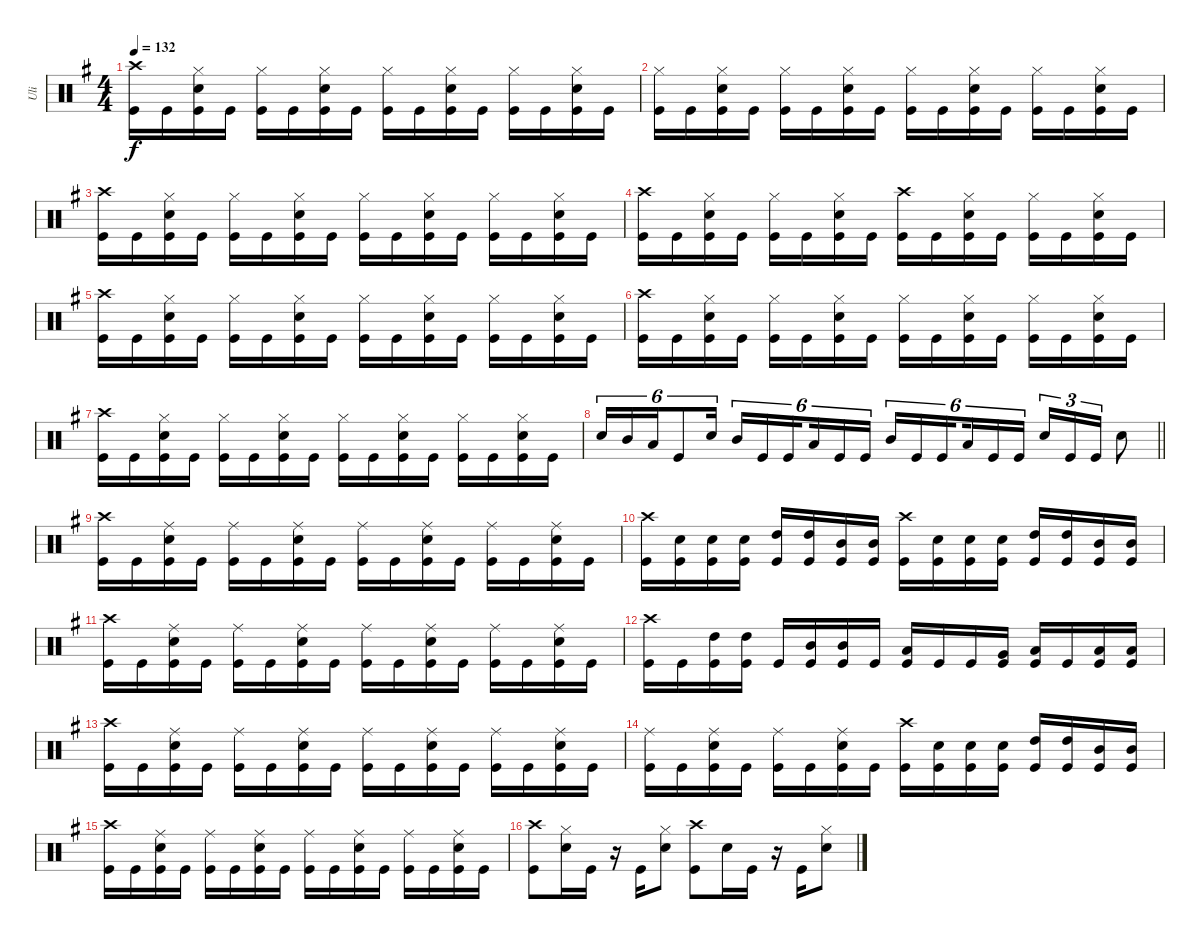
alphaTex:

\track ("Uli" "Uli") {instrument percussion}
\staff {score}
\articulation defaults
\ts (4 4)
\tempo 132
\clef neutral
\ks eminor
("Crash high (hit)" "Kick (hit)").16{dy f} "Kick (hit)".16 ("Hi-Hat (closed)" "Snare (hit) 2" "Kick (hit)").16 "Kick (hit)".16 ("Hi-Hat (closed)" "Kick (hit)").16 "Kick (hit)".16 ("Hi-Hat (closed)" "Snare (hit) 2" "Kick (hit)").16 "Kick (hit)".16 ("Hi-Hat (closed)" "Kick (hit)").16 "Kick (hit)".16 ("Hi-Hat (closed)" "Snare (hit) 2" "Kick (hit)").16 "Kick (hit)".16 ("Hi-Hat (closed)" "Kick (hit)").16 "Kick (hit)".16 ("Hi-Hat (closed)" "Snare (hit) 2" "Kick (hit)").16 "Kick (hit)".16 |
("Hi-Hat (closed)" "Kick (hit)").16 "Kick (hit)".16 ("Hi-Hat (closed)" "Snare (hit) 2" "Kick (hit)").16 "Kick (hit)".16 ("Hi-Hat (closed)" "Kick (hit)").16 "Kick (hit)".16 ("Hi-Hat (closed)" "Snare (hit) 2" "Kick (hit)").16 "Kick (hit)".16 ("Hi-Hat (closed)" "Kick (hit)").16 "Kick (hit)".16 ("Hi-Hat (closed)" "Snare (hit) 2" "Kick (hit)").16 "Kick (hit)".16 ("Hi-Hat (closed)" "Kick (hit)").16 "Kick (hit)".16 ("Hi-Hat (closed)" "Snare (hit) 2" "Kick (hit)").16 "Kick (hit)".16 |
("Crash high (hit)" "Kick (hit)").16 "Kick (hit)".16 ("Hi-Hat (closed)" "Snare (hit) 2" "Kick (hit)").16 "Kick (hit)".16 ("Hi-Hat (closed)" "Kick (hit)").16 "Kick (hit)".16 ("Hi-Hat (closed)" "Snare (hit) 2" "Kick (hit)").16 "Kick (hit)".16 ("Hi-Hat (closed)" "Kick (hit)").16 "Kick (hit)".16 ("Hi-Hat (closed)" "Snare (hit) 2" "Kick (hit)").16 "Kick (hit)".16 ("Hi-Hat (closed)" "Kick (hit)").16 "Kick (hit)".16 ("Hi-Hat (closed)" "Snare (hit) 2" "Kick (hit)").16 "Kick (hit)".16 |
("Crash high (hit)" "Kick (hit)").16 "Kick (hit)".16 ("Hi-Hat (closed)" "Snare (hit) 2" "Kick (hit)").16 "Kick (hit)".16 ("Hi-Hat (closed)" "Kick (hit)").16 "Kick (hit)".16 ("Hi-Hat (closed)" "Snare (hit) 2" "Kick (hit)").16 "Kick (hit)".16 ("Crash high (hit)" "Kick (hit)").16 "Kick (hit)".16 ("Hi-Hat (closed)" "Snare (hit) 2" "Kick (hit)").16 "Kick (hit)".16 ("Hi-Hat (closed)" "Kick (hit)").16 "Kick (hit)".16 ("Hi-Hat (closed)" "Snare (hit) 2" "Kick (hit)").16 "Kick (hit)".16 |
("Crash high (hit)" "Kick (hit)").16 "Kick (hit)".16 ("Hi-Hat (closed)" "Snare (hit) 2" "Kick (hit)").16 "Kick (hit)".16 ("Hi-Hat (closed)" "Kick (hit)").16 "Kick (hit)".16 ("Hi-Hat (closed)" "Snare (hit) 2" "Kick (hit)").16 "Kick (hit)".16 ("Hi-Hat (closed)" "Kick (hit)").16 "Kick (hit)".16 ("Hi-Hat (closed)" "Snare (hit) 2" "Kick (hit)").16 "Kick (hit)".16 ("Hi-Hat (closed)" "Kick (hit)").16 "Kick (hit)".16 ("Hi-Hat (closed)" "Snare (hit) 2" "Kick (hit)").16 "Kick (hit)".16 |
("Crash high (hit)" "Kick (hit)").16 "Kick (hit)".16 ("Hi-Hat (closed)" "Snare (hit) 2" "Kick (hit)").16 "Kick (hit)".16 ("Hi-Hat (closed)" "Kick (hit)").16 "Kick (hit)".16 ("Hi-Hat (closed)" "Snare (hit) 2" "Kick (hit)").16 "Kick (hit)".16 ("Hi-Hat (closed)" "Kick (hit)").16 "Kick (hit)".16 ("Hi-Hat (closed)" "Snare (hit) 2" "Kick (hit)").16 "Kick (hit)".16 ("Hi-Hat (closed)" "Kick (hit)").16 "Kick (hit)".16 ("Hi-Hat (closed)" "Snare (hit) 2" "Kick (hit)").16 "Kick (hit)".16 |
("Crash high (hit)" "Kick (hit)").16 "Kick (hit)".16 ("Hi-Hat (closed)" "Snare (hit) 2" "Kick (hit)").16 "Kick (hit)".16 ("Hi-Hat (closed)" "Kick (hit)").16 "Kick (hit)".16 ("Hi-Hat (closed)" "Snare (hit) 2" "Kick (hit)").16 "Kick (hit)".16 ("Hi-Hat (closed)" "Kick (hit)").16 "Kick (hit)".16 ("Hi-Hat (closed)" "Snare (hit) 2" "Kick (hit)").16 "Kick (hit)".16 ("Hi-Hat (closed)" "Kick (hit)").16 "Kick (hit)".16 ("Hi-Hat (closed)" "Snare (hit) 2" "Kick (hit)").16 "Kick (hit)".16 |
\barLineRight lightlight "Snare (hit) 2".16{tu (6 4)} "Mid Tom (hit)".16{tu (6 4)} "Low Tom (hit)".16{tu (6 4)} "Kick (hit)".8{tu (6 4)} "Snare (hit) 2".16{tu (6 4)} "Mid Tom (hit)".16{tu (6 4)} "Kick (hit)".16{tu (6 4)} "Kick (hit)".16{tu (6 4) beam splitsecondary} "Low Tom (hit)".16{tu (6 4)} "Kick (hit)".16{tu (6 4)} "Kick (hit)".16{tu (6 4)} "Mid Tom (hit)".16{tu (6 4)} "Kick (hit)".16{tu (6 4)} "Kick (hit)".16{tu (6 4) beam splitsecondary} "Low Tom (hit)".16{tu (6 4)} "Kick (hit)".16{tu (6 4)} "Kick (hit)".16{tu (6 4)} "Snare (hit) 2".16{tu (3 2)} "Kick (hit)".16{tu (3 2)} "Kick (hit)".16{tu (3 2)} "Snare (hit) 2".8
|
("Crash high (hit)" "Kick (hit)").16 "Kick (hit)".16 ("Ride (middle)" "Snare (hit) 2" "Kick (hit)").16 "Kick (hit)".16 ("Ride (middle)" "Kick (hit)").16 "Kick (hit)".16 ("Ride (middle)" "Snare (hit) 2" "Kick (hit)").16 "Kick (hit)".16 ("Ride (middle)" "Kick (hit)").16 "Kick (hit)".16 ("Ride (middle)" "Snare (hit) 2" "Kick (hit)").16 "Kick (hit)".16 ("Ride (middle)" "Kick (hit)").16 "Kick (hit)".16 ("Ride (middle)" "Snare (hit) 2" "Kick (hit)").16 "Kick (hit)".16 |
("Crash high (hit)" "Kick (hit)").16 ("Snare (hit) 2" "Kick (hit)").16 ("Snare (hit) 2" "Kick (hit)").16 ("Snare (hit) 2" "Kick (hit)").16 ("High Tom (hit)" "Kick (hit)").16 ("High Tom (hit)" "Kick (hit)").16 ("Mid Tom (hit)" "Kick (hit)").16 ("Mid Tom (hit)" "Kick (hit)").16 ("Crash high (hit)" "Kick (hit)").16 ("Snare (hit) 2" "Kick (hit)").16 ("Snare (hit) 2" "Kick (hit)").16 ("Snare (hit) 2" "Kick (hit)").16 ("High Tom (hit)" "Kick (hit)").16 ("High Tom (hit)" "Kick (hit)").16 ("Mid Tom (hit)" "Kick (hit)").16 ("Mid Tom (hit)" "Kick (hit)").16 |
("Crash high (hit)" "Kick (hit)").16 "Kick (hit)".16 ("Ride (middle)" "Snare (hit) 2" "Kick (hit)").16 "Kick (hit)".16 ("Ride (middle)" "Kick (hit)").16 "Kick (hit)".16 ("Ride (middle)" "Snare (hit) 2" "Kick (hit)").16 "Kick (hit)".16 ("Ride (middle)" "Kick (hit)").16 "Kick (hit)".16 ("Ride (middle)" "Snare (hit) 2" "Kick (hit)").16 "Kick (hit)".16 ("Ride (middle)" "Kick (hit)").16 "Kick (hit)".16 ("Ride (middle)" "Snare (hit) 2" "Kick (hit)").16 "Kick (hit)".16 |
("Crash high (hit)" "Kick (hit)").16 "Kick (hit)".16 ("High Tom (hit)" "Kick (hit)").16 ("High Tom (hit)" "Kick (hit)").16 "Kick (hit)".16 ("Mid Tom (hit)" "Kick (hit)").16 ("Mid Tom (hit)" "Kick (hit)").16 "Kick (hit)".16 ("Low Tom (hit)" "Kick (hit)").16 "Kick (hit)".16 "Kick (hit)".16 ("Very Low Tom (hit)" "Kick (hit)").16 ("Low Floor Tom (hit)" "Kick (hit)").16 "Kick (hit)".16 ("Low Floor Tom (hit)" "Kick (hit)").16 ("Low Floor Tom (hit)" "Kick (hit)").16 |
("Crash high (hit)" "Kick (hit)").16 "Kick (hit)".16 ("Ride (middle)" "Snare (hit) 2" "Kick (hit)").16 "Kick (hit)".16 ("Ride (middle)" "Kick (hit)").16 "Kick (hit)".16 ("Ride (middle)" "Snare (hit) 2" "Kick (hit)").16 "Kick (hit)".16 ("Ride (middle)" "Kick (hit)").16 "Kick (hit)".16 ("Ride (middle)" "Snare (hit) 2" "Kick (hit)").16 "Kick (hit)".16 ("Ride (middle)" "Kick (hit)").16 "Kick (hit)".16 ("Ride (middle)" "Snare (hit) 2" "Kick (hit)").16 "Kick (hit)".16 |
("Ride (middle)" "Kick (hit)").16 "Kick (hit)".16 ("Ride (middle)" "Snare (hit) 2" "Kick (hit)").16 "Kick (hit)".16 ("Ride (middle)" "Kick (hit)").16 "Kick (hit)".16 ("Ride (middle)" "Snare (hit) 2" "Kick (hit)").16 "Kick (hit)".16 ("Crash high (hit)" "Kick (hit)").16 ("Snare (hit) 2" "Kick (hit)").16 ("Snare (hit) 2" "Kick (hit)").16 ("Snare (hit) 2" "Kick (hit)").16 ("High Tom (hit)" "Kick (hit)").16 ("High Tom (hit)" "Kick (hit)").16 ("Mid Tom (hit)" "Kick (hit)").16 ("Mid Tom (hit)" "Kick (hit)").16 |
("Crash high (hit)" "Kick (hit)").16 "Kick (hit)".16 ("Ride (middle)" "Snare (hit) 2" "Kick (hit)").16 "Kick (hit)".16 ("Ride (middle)" "Kick (hit)").16 "Kick (hit)".16 ("Ride (middle)" "Snare (hit) 2" "Kick (hit)").16 "Kick (hit)".16 ("Ride (middle)" "Kick (hit)").16 "Kick (hit)".16 ("Ride (middle)" "Snare (hit) 2" "Kick (hit)").16 "Kick (hit)".16 ("Ride (middle)" "Kick (hit)").16 "Kick (hit)".16 ("Ride (middle)" "Snare (hit) 2" "Kick (hit)").16 "Kick (hit)".16 |
("Crash high (hit)" "Kick (hit)").8 ("Hi-Hat (closed)" "Snare (hit) 2").16 "Kick (hit)".16 r.16 "Kick (hit)".16 ("Hi-Hat (closed)" "Snare (hit) 2").8 ("Crash high (hit)" "Kick (hit)").8 "Snare (hit) 2".16 "Kick (hit)".16 r.16 "Kick (hit)".16 ("Hi-Hat (closed)" "Snare (hit) 2").8
